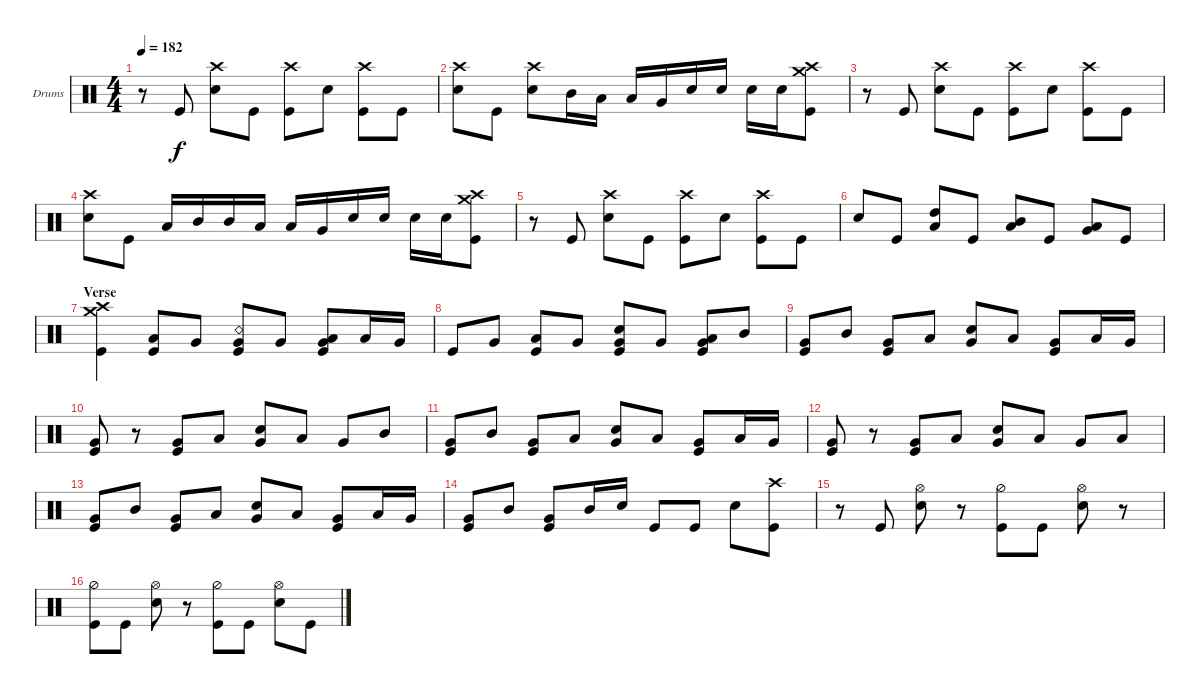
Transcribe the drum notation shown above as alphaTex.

\defaultSystemsLayout 4
\bracketExtendMode groupsimilarinstruments
\firstSystemTrackNameOrientation horizontal
\otherSystemsTrackNameOrientation horizontal
\track ("Drumkit" "Drums") {instrument percussion}
\staff {score}
\articulation defaults
\ts (4 4)
\tempo 182
\clef neutral
\ks c
r.8{dy f} "Kick (hit)".8 ("Snare (hit) 2" "Crash high (hit)").8 "Kick (hit)".8 ("Kick (hit)" "Crash high (hit)").8 "Snare (hit) 2".8 ("Kick (hit)" "Crash high (hit)").8 "Kick (hit)".8 |
("Snare (hit) 2" "Crash high (hit)").8 "Kick (hit)".8 ("Snare (hit) 2" "Crash high (hit)").8 "Mid Tom (hit)".16 "Low Tom (hit)".16 "Low Tom (hit)".16 "Very Low Tom (hit)".16 "Snare (hit) 2".16 "Snare (hit) 2".16 "Snare (hit) 2".16 "Snare (hit) 2".16 ("Kick (hit)" "Crash high (hit)" "Crash medium (hit)").8 |
r.8 "Kick (hit)".8 ("Snare (hit) 2" "Crash high (hit)").8 "Kick (hit)".8 ("Kick (hit)" "Crash high (hit)").8 "Snare (hit) 2".8 ("Kick (hit)" "Crash high (hit)").8 "Kick (hit)".8 |
("Snare (hit) 2" "Crash high (hit)").8 "Kick (hit)".8 "Low Tom (hit)".16 "Mid Tom (hit)".16 "Mid Tom (hit)".16 "Low Tom (hit)".16 "Low Tom (hit)".16 "Very Low Tom (hit)".16 "Snare (hit) 2".16 "Snare (hit) 2".16 "Snare (hit) 2".16 "Snare (hit) 2".16 ("Kick (hit)" "Crash high (hit)" "Crash medium (hit)").8 |
r.8 "Kick (hit)".8 ("Snare (hit) 2" "Crash high (hit)").8 "Kick (hit)".8 ("Kick (hit)" "Crash high (hit)").8 "Snare (hit) 2".8 ("Kick (hit)" "Crash high (hit)").8 "Kick (hit)".8 |
"Snare (hit) 2".8 "Kick (hit)".8 ("High Tom (hit)" "Low Tom (hit)").8 "Kick (hit)".8 ("Mid Tom (hit)" "Low Tom (hit)").8 "Kick (hit)".8 ("Very Low Tom (hit)" "Low Tom (hit)").8 "Kick (hit)".8 |
\section ("" "Verse")
("Kick (hit)" "Crash high (hit)" "Crash medium (hit)").4 ("Low Tom (hit)" "Kick (hit)").8 "Very Low Tom (hit)".8 ("Snare (rim shot)" "Very Low Tom (hit)" "Kick (hit)").8 "Very Low Tom (hit)".8 ("Low Tom (hit)" "Very Low Tom (hit)" "Kick (hit)").8 "Low Tom (hit)".16 "Very Low Tom (hit)".16 |
"Kick (hit)".8 "Very Low Tom (hit)".8 ("Low Tom (hit)" "Kick (hit)").8 "Very Low Tom (hit)".8 ("Snare (hit) 2" "Very Low Tom (hit)" "Kick (hit)").8 "Very Low Tom (hit)".8 ("Low Tom (hit)" "Very Low Tom (hit)" "Kick (hit)").8 "Mid Tom (hit)".8 |
("Kick (hit)" "Very Low Tom (hit)").8 "Mid Tom (hit)".8 ("Kick (hit)" "Very Low Tom (hit)").8 "Low Tom (hit)".8 ("Snare (hit) 2" "Very Low Tom (hit)").8 "Low Tom (hit)".8 ("Kick (hit)" "Very Low Tom (hit)").8 "Low Tom (hit)".16 "Very Low Tom (hit)".16 |
("Kick (hit)" "Very Low Tom (hit)").8 r.8 ("Very Low Tom (hit)" "Kick (hit)").8 "Low Tom (hit)".8 ("Snare (hit) 2" "Very Low Tom (hit)").8 "Low Tom (hit)".8 "Very Low Tom (hit)".8 "Mid Tom (hit)".8 |
("Kick (hit)" "Very Low Tom (hit)").8 "Mid Tom (hit)".8 ("Kick (hit)" "Very Low Tom (hit)").8 "Low Tom (hit)".8 ("Snare (hit) 2" "Very Low Tom (hit)").8 "Low Tom (hit)".8 ("Kick (hit)" "Very Low Tom (hit)").8 "Low Tom (hit)".16 "Very Low Tom (hit)".16 |
("Kick (hit)" "Very Low Tom (hit)").8 r.8 ("Very Low Tom (hit)" "Kick (hit)").8 "Low Tom (hit)".8 ("Snare (hit) 2" "Very Low Tom (hit)").8 "Low Tom (hit)".8 "Very Low Tom (hit)".8 "Low Tom (hit)".8 |
("Kick (hit)" "Very Low Tom (hit)").8 "Mid Tom (hit)".8 ("Kick (hit)" "Very Low Tom (hit)").8 "Low Tom (hit)".8 ("Snare (hit) 2" "Very Low Tom (hit)").8 "Low Tom (hit)".8 ("Kick (hit)" "Very Low Tom (hit)").8 "Low Tom (hit)".16 "Very Low Tom (hit)".16 |
("Very Low Tom (hit)" "Kick (hit)").8 "Mid Tom (hit)".8 ("Kick (hit)" "Very Low Tom (hit)").8 "Mid Tom (hit)".16 "Snare (hit) 2".16 "Kick (hit)".8 "Kick (hit)".8 "Snare (hit) 2".8 ("Kick (hit)" "Crash high (hit)").8 |
r.8 "Kick (hit)".8 ("Snare (hit) 2" "Hi-Hat (open)").8 r.8 ("Kick (hit)" "Hi-Hat (half)").8 "Kick (hit)".8 ("Snare (hit) 2" "Hi-Hat (open)").8 r.8 |
("Kick (hit)" "Hi-Hat (half)").8 "Kick (hit)".8 ("Snare (hit) 2" "Hi-Hat (open)").8 r.8 ("Kick (hit)" "Hi-Hat (half)").8 "Kick (hit)".8 ("Snare (hit) 2" "Hi-Hat (open)").8 "Kick (hit)".8
